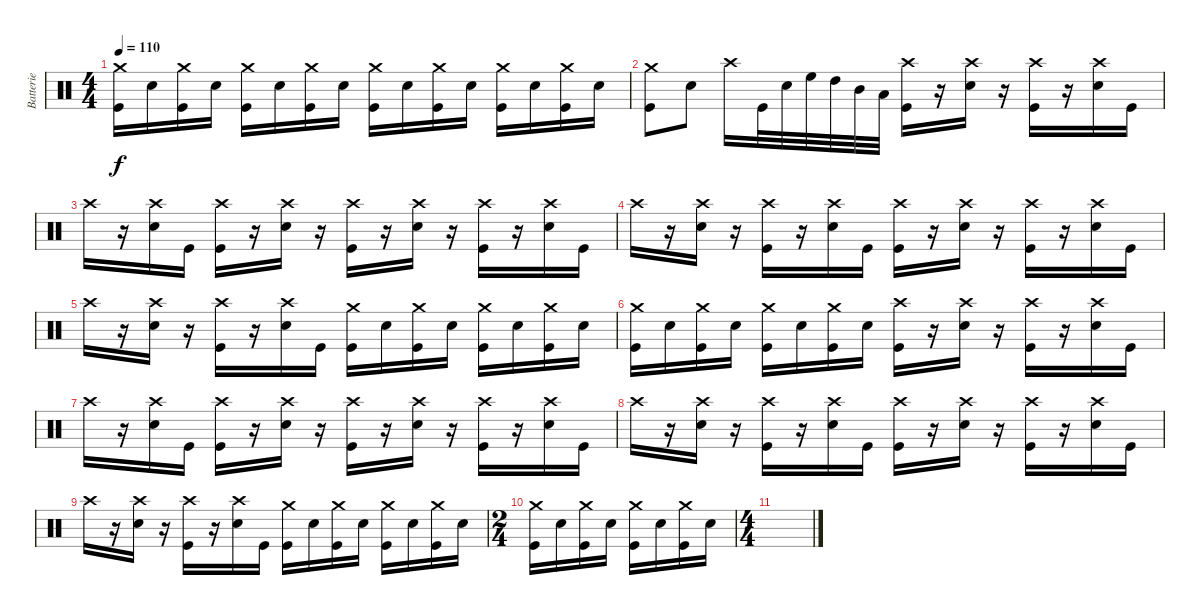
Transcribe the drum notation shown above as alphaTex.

\track ("Batterie" "Batterie") {instrument percussion}
\staff {score}
\articulation defaults
\ts (4 4)
\tempo 110
\clef neutral
\ks c
("Crash medium (hit)" "Kick (hit)").16{dy f} "Electric Snare (hit)".16 ("Crash medium (hit)" "Kick (hit)").16 "Electric Snare (hit)".16 ("Crash medium (hit)" "Kick (hit)").16 "Electric Snare (hit)".16 ("Crash medium (hit)" "Kick (hit)").16 "Electric Snare (hit)".16 ("Crash medium (hit)" "Kick (hit)").16 "Electric Snare (hit)".16 ("Crash medium (hit)" "Kick (hit)").16 "Electric Snare (hit)".16 ("Crash medium (hit)" "Kick (hit)").16 "Electric Snare (hit)".16 ("Crash medium (hit)" "Kick (hit)").16 "Electric Snare (hit)".16 |
("Crash medium (hit)" "Kick (hit)").8 "Electric Snare (hit)".8 "Crash high (hit)".16 "Kick (hit)".32 "Electric Snare (hit)".32 "High Floor Tom (hit)".32 "High Tom (hit)".32 "Mid Tom (hit)".32 "Low Tom (hit)".32 ("Crash high (hit)" "Kick (hit)").16 r.16 ("Crash high (hit)" "Electric Snare (hit)").16 r.16 ("Crash high (hit)" "Kick (hit)").16 r.16 ("Crash high (hit)" "Electric Snare (hit)").16 "Kick (hit)".16 |
"Crash high (hit)".16 r.16 ("Crash high (hit)" "Electric Snare (hit)").16 "Kick (hit)".16 ("Crash high (hit)" "Kick (hit)").16 r.16 ("Crash high (hit)" "Electric Snare (hit)").16 r.16 ("Crash high (hit)" "Kick (hit)").16 r.16 ("Crash high (hit)" "Electric Snare (hit)").16 r.16 ("Crash high (hit)" "Kick (hit)").16 r.16 ("Crash high (hit)" "Electric Snare (hit)").16 "Kick (hit)".16 |
"Crash high (hit)".16 r.16 ("Crash high (hit)" "Electric Snare (hit)").16 r.16 ("Crash high (hit)" "Kick (hit)").16 r.16 ("Crash high (hit)" "Electric Snare (hit)").16 "Kick (hit)".16 ("Crash high (hit)" "Kick (hit)").16 r.16 ("Crash high (hit)" "Electric Snare (hit)").16 r.16 ("Crash high (hit)" "Kick (hit)").16 r.16 ("Crash high (hit)" "Electric Snare (hit)").16 "Kick (hit)".16 |
"Crash high (hit)".16 r.16 ("Crash high (hit)" "Electric Snare (hit)").16 r.16 ("Crash high (hit)" "Kick (hit)").16 r.16 ("Crash high (hit)" "Electric Snare (hit)").16 "Kick (hit)".16 ("Crash medium (hit)" "Kick (hit)").16 "Electric Snare (hit)".16 ("Crash medium (hit)" "Kick (hit)").16 "Electric Snare (hit)".16 ("Crash medium (hit)" "Kick (hit)").16 "Electric Snare (hit)".16 ("Crash medium (hit)" "Kick (hit)").16 "Electric Snare (hit)".16 |
("Crash medium (hit)" "Kick (hit)").16 "Electric Snare (hit)".16 ("Crash medium (hit)" "Kick (hit)").16 "Electric Snare (hit)".16 ("Crash medium (hit)" "Kick (hit)").16 "Electric Snare (hit)".16 ("Crash medium (hit)" "Kick (hit)").16 "Electric Snare (hit)".16 ("Crash high (hit)" "Kick (hit)").16 r.16 ("Crash high (hit)" "Electric Snare (hit)").16 r.16 ("Crash high (hit)" "Kick (hit)").16 r.16 ("Crash high (hit)" "Electric Snare (hit)").16 "Kick (hit)".16 |
"Crash high (hit)".16 r.16 ("Crash high (hit)" "Electric Snare (hit)").16 "Kick (hit)".16 ("Crash high (hit)" "Kick (hit)").16 r.16 ("Crash high (hit)" "Electric Snare (hit)").16 r.16 ("Crash high (hit)" "Kick (hit)").16 r.16 ("Crash high (hit)" "Electric Snare (hit)").16 r.16 ("Crash high (hit)" "Kick (hit)").16 r.16 ("Crash high (hit)" "Electric Snare (hit)").16 "Kick (hit)".16 |
"Crash high (hit)".16 r.16 ("Crash high (hit)" "Electric Snare (hit)").16 r.16 ("Crash high (hit)" "Kick (hit)").16 r.16 ("Crash high (hit)" "Electric Snare (hit)").16 "Kick (hit)".16 ("Crash high (hit)" "Kick (hit)").16 r.16 ("Crash high (hit)" "Electric Snare (hit)").16 r.16 ("Crash high (hit)" "Kick (hit)").16 r.16 ("Crash high (hit)" "Electric Snare (hit)").16 "Kick (hit)".16 |
"Crash high (hit)".16 r.16 ("Crash high (hit)" "Electric Snare (hit)").16 r.16 ("Crash high (hit)" "Kick (hit)").16 r.16 ("Crash high (hit)" "Electric Snare (hit)").16 "Kick (hit)".16 ("Crash medium (hit)" "Kick (hit)").16 "Electric Snare (hit)".16 ("Crash medium (hit)" "Kick (hit)").16 "Electric Snare (hit)".16 ("Crash medium (hit)" "Kick (hit)").16 "Electric Snare (hit)".16 ("Crash medium (hit)" "Kick (hit)").16 "Electric Snare (hit)".16 |
\ts (2 4)
("Crash medium (hit)" "Kick (hit)").16 "Electric Snare (hit)".16 ("Crash medium (hit)" "Kick (hit)").16 "Electric Snare (hit)".16 ("Crash medium (hit)" "Kick (hit)").16 "Electric Snare (hit)".16 ("Crash medium (hit)" "Kick (hit)").16 "Electric Snare (hit)".16 |
\ts (4 4)
